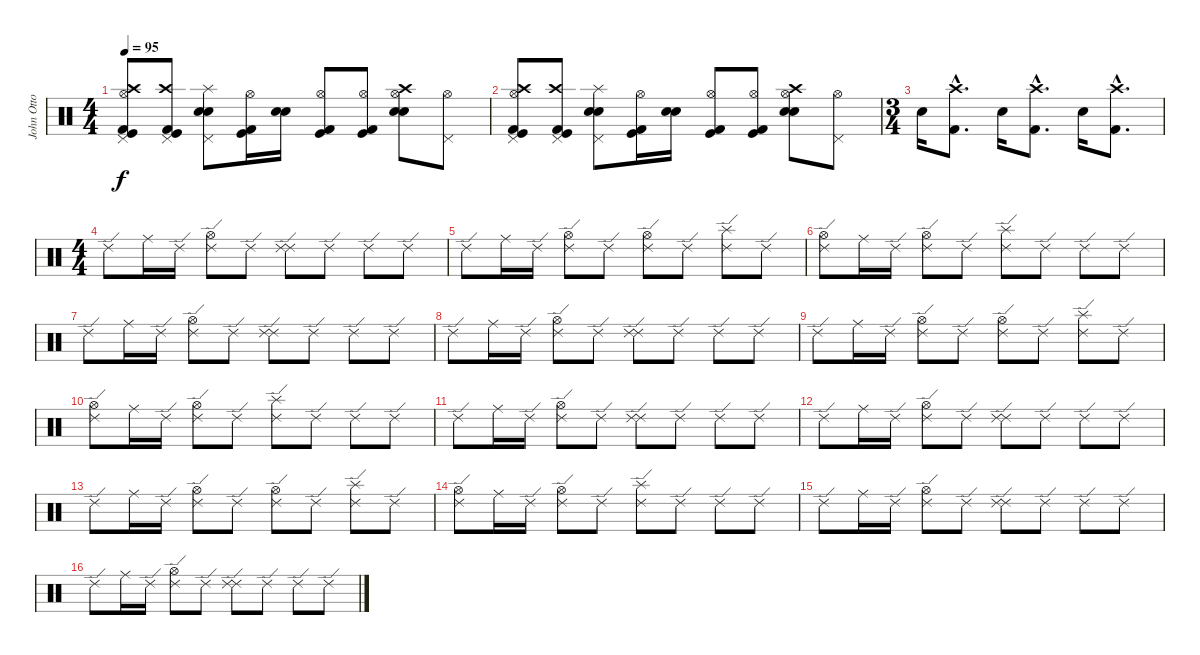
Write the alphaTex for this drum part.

\track ("John Otto (Drums)" "John Otto ") {instrument percussion}
\staff {score}
\articulation defaults
\ts (4 4)
\tempo 95
\clef neutral
\ks c
("Kick (hit)" "Crash high (hit)" "Hi-Hat (open)" "Pedal Hi-Hat (hit)" "Kick (hit) 2").8{dy f} ("Kick (hit)" "Crash high (hit)" "Pedal Hi-Hat (hit)" "Kick (hit) 2").8 ("Electric Snare (hit)" "Splash (hit)" "Pedal Hi-Hat (hit)" "Electric Snare (hit)").8 ("Kick (hit)" "Hi-Hat (open)" "Kick (hit) 2").16 ("Electric Snare (hit)" "Electric Snare (hit)").16 ("Kick (hit)" "Hi-Hat (open)" "Kick (hit) 2").8 ("Kick (hit)" "Hi-Hat (open)" "Kick (hit) 2").8 ("Electric Snare (hit)" "Crash high (hit)" "Hi-Hat (open)" "Electric Snare (hit)").8 ("Hi-Hat (open)" "Pedal Hi-Hat (hit)").8 |
("Kick (hit)" "Crash high (hit)" "Hi-Hat (open)" "Pedal Hi-Hat (hit)" "Kick (hit) 2").8 ("Kick (hit)" "Crash high (hit)" "Pedal Hi-Hat (hit)" "Kick (hit) 2").8 ("Electric Snare (hit)" "Splash (hit)" "Pedal Hi-Hat (hit)" "Electric Snare (hit)").8 ("Kick (hit)" "Hi-Hat (open)" "Kick (hit) 2").16 ("Electric Snare (hit)" "Electric Snare (hit)").16 ("Kick (hit)" "Hi-Hat (open)" "Kick (hit) 2").8 ("Kick (hit)" "Hi-Hat (open)" "Kick (hit) 2").8 ("Electric Snare (hit)" "Crash high (hit)" "Hi-Hat (open)" "Electric Snare (hit)").8 ("Hi-Hat (open)" "Pedal Hi-Hat (hit)").8 |
\ts (3 4)
"Electric Snare (hit)".16 ("Crash high (hit)"{hac} "Kick (hit) 2"{hac}).8{d} "Electric Snare (hit)".16 ("Crash high (hit)"{hac} "Kick (hit) 2"{hac}).8{d} "Electric Snare (hit)".16 ("Crash high (hit)"{hac} "Kick (hit) 2"{hac}).8{d} |
\ts (4 4)
"Ride (edge) 2".8 "Ride (middle)".16 "Ride (edge) 2".16 ("Hi-Hat (open)" "Ride (edge) 2").8 "Ride (edge) 2".8 ("Ride (edge) 2" "Ride (edge) 2").8 "Ride (edge) 2".8 "Ride (edge) 2".8 "Ride (edge) 2".8 |
"Ride (edge) 2".8 "Ride (middle)".16 "Ride (edge) 2".16 ("Hi-Hat (open)" "Ride (edge) 2").8 "Ride (edge) 2".8 ("Hi-Hat (open)" "Ride (edge) 2").8 "Ride (edge) 2".8 ("Splash (hit)" "Ride (edge) 2").8 "Ride (edge) 2".8 |
("Hi-Hat (open)" "Ride (edge) 2").8 "Ride (middle)".16 "Ride (edge) 2".16 ("Hi-Hat (open)" "Ride (edge) 2").8 "Ride (edge) 2".8 ("Splash (hit)" "Ride (edge) 2").8 "Ride (edge) 2".8 "Ride (edge) 2".8 "Ride (edge) 2".8 |
"Ride (edge) 2".8 "Ride (middle)".16 "Ride (edge) 2".16 ("Hi-Hat (open)" "Ride (edge) 2").8 "Ride (edge) 2".8 ("Ride (edge) 2" "Ride (edge) 2").8 "Ride (edge) 2".8 "Ride (edge) 2".8 "Ride (edge) 2".8 |
"Ride (edge) 2".8 "Ride (middle)".16 "Ride (edge) 2".16 ("Hi-Hat (open)" "Ride (edge) 2").8 "Ride (edge) 2".8 ("Ride (edge) 2" "Ride (edge) 2").8 "Ride (edge) 2".8 "Ride (edge) 2".8 "Ride (edge) 2".8 |
"Ride (edge) 2".8 "Ride (middle)".16 "Ride (edge) 2".16 ("Hi-Hat (open)" "Ride (edge) 2").8 "Ride (edge) 2".8 ("Hi-Hat (open)" "Ride (edge) 2").8 "Ride (edge) 2".8 ("Splash (hit)" "Ride (edge) 2").8 "Ride (edge) 2".8 |
("Hi-Hat (open)" "Ride (edge) 2").8 "Ride (middle)".16 "Ride (edge) 2".16 ("Hi-Hat (open)" "Ride (edge) 2").8 "Ride (edge) 2".8 ("Splash (hit)" "Ride (edge) 2").8 "Ride (edge) 2".8 "Ride (edge) 2".8 "Ride (edge) 2".8 |
"Ride (edge) 2".8 "Ride (middle)".16 "Ride (edge) 2".16 ("Hi-Hat (open)" "Ride (edge) 2").8 "Ride (edge) 2".8 ("Ride (edge) 2" "Ride (edge) 2").8 "Ride (edge) 2".8 "Ride (edge) 2".8 "Ride (edge) 2".8 |
"Ride (edge) 2".8 "Ride (middle)".16 "Ride (edge) 2".16 ("Hi-Hat (open)" "Ride (edge) 2").8 "Ride (edge) 2".8 ("Ride (edge) 2" "Ride (edge) 2").8 "Ride (edge) 2".8 "Ride (edge) 2".8 "Ride (edge) 2".8 |
"Ride (edge) 2".8 "Ride (middle)".16 "Ride (edge) 2".16 ("Hi-Hat (open)" "Ride (edge) 2").8 "Ride (edge) 2".8 ("Hi-Hat (open)" "Ride (edge) 2").8 "Ride (edge) 2".8 ("Splash (hit)" "Ride (edge) 2").8 "Ride (edge) 2".8 |
("Hi-Hat (open)" "Ride (edge) 2").8 "Ride (middle)".16 "Ride (edge) 2".16 ("Hi-Hat (open)" "Ride (edge) 2").8 "Ride (edge) 2".8 ("Splash (hit)" "Ride (edge) 2").8 "Ride (edge) 2".8 "Ride (edge) 2".8 "Ride (edge) 2".8 |
"Ride (edge) 2".8 "Ride (middle)".16 "Ride (edge) 2".16 ("Hi-Hat (open)" "Ride (edge) 2").8 "Ride (edge) 2".8 ("Ride (edge) 2" "Ride (edge) 2").8 "Ride (edge) 2".8 "Ride (edge) 2".8 "Ride (edge) 2".8 |
"Ride (edge) 2".8 "Ride (middle)".16 "Ride (edge) 2".16 ("Hi-Hat (open)" "Ride (edge) 2").8 "Ride (edge) 2".8 ("Ride (edge) 2" "Ride (edge) 2").8 "Ride (edge) 2".8 "Ride (edge) 2".8 "Ride (edge) 2".8
